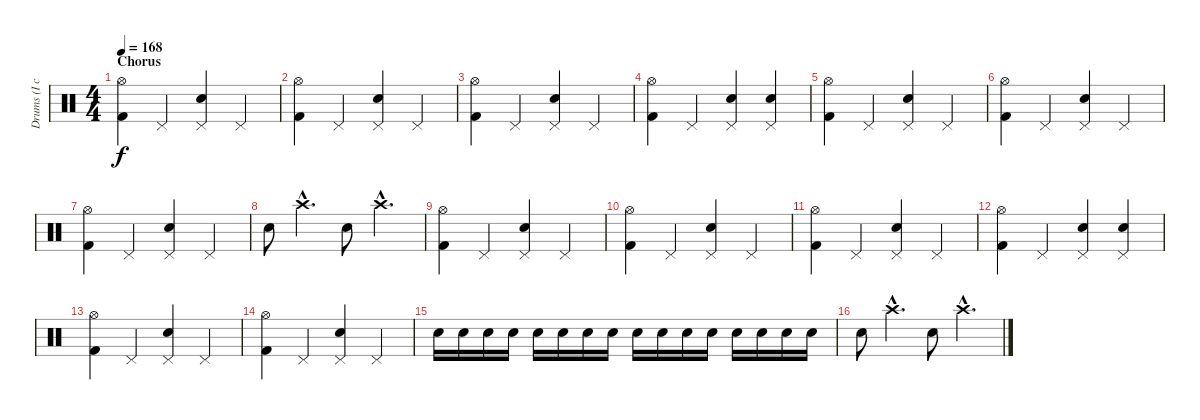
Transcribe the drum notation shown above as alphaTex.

\track ("Drums (I can't tab drums too well...)" "Drums (I c") {instrument percussion}
\staff {score}
\articulation defaults
\ts (4 4)
\section ("" "Chorus")
\tempo 168
\clef neutral
\ks c
("Hi-Hat (open)" "Kick (hit) 2").4{dy f} "Pedal Hi-Hat (hit)".4 ("Pedal Hi-Hat (hit)" "Snare (hit) 2").4 "Pedal Hi-Hat (hit)".4 |
("Hi-Hat (open)" "Kick (hit) 2").4 "Pedal Hi-Hat (hit)".4 ("Pedal Hi-Hat (hit)" "Snare (hit) 2").4 "Pedal Hi-Hat (hit)".4 |
("Hi-Hat (open)" "Kick (hit) 2").4 "Pedal Hi-Hat (hit)".4 ("Pedal Hi-Hat (hit)" "Snare (hit) 2").4 "Pedal Hi-Hat (hit)".4 |
("Hi-Hat (open)" "Kick (hit) 2").4 "Pedal Hi-Hat (hit)".4 ("Pedal Hi-Hat (hit)" "Snare (hit) 2").4 ("Pedal Hi-Hat (hit)" "Snare (hit) 2").4 |
("Hi-Hat (open)" "Kick (hit) 2").4 "Pedal Hi-Hat (hit)".4 ("Pedal Hi-Hat (hit)" "Snare (hit) 2").4 "Pedal Hi-Hat (hit)".4 |
("Hi-Hat (open)" "Kick (hit) 2").4 "Pedal Hi-Hat (hit)".4 ("Pedal Hi-Hat (hit)" "Snare (hit) 2").4 "Pedal Hi-Hat (hit)".4 |
("Hi-Hat (open)" "Kick (hit) 2").4 "Pedal Hi-Hat (hit)".4 ("Pedal Hi-Hat (hit)" "Snare (hit) 2").4 "Pedal Hi-Hat (hit)".4 |
"Snare (hit) 2".8 "Crash high (hit)"{hac}.4{d} "Snare (hit) 2".8 "Crash high (hit)"{hac}.4{d} |
("Hi-Hat (open)" "Kick (hit) 2").4 "Pedal Hi-Hat (hit)".4 ("Pedal Hi-Hat (hit)" "Snare (hit) 2").4 "Pedal Hi-Hat (hit)".4 |
("Hi-Hat (open)" "Kick (hit) 2").4 "Pedal Hi-Hat (hit)".4 ("Pedal Hi-Hat (hit)" "Snare (hit) 2").4 "Pedal Hi-Hat (hit)".4 |
("Hi-Hat (open)" "Kick (hit) 2").4 "Pedal Hi-Hat (hit)".4 ("Pedal Hi-Hat (hit)" "Snare (hit) 2").4 "Pedal Hi-Hat (hit)".4 |
("Hi-Hat (open)" "Kick (hit) 2").4 "Pedal Hi-Hat (hit)".4 ("Pedal Hi-Hat (hit)" "Snare (hit) 2").4 ("Pedal Hi-Hat (hit)" "Snare (hit) 2").4 |
("Hi-Hat (open)" "Kick (hit) 2").4 "Pedal Hi-Hat (hit)".4 ("Pedal Hi-Hat (hit)" "Snare (hit) 2").4 "Pedal Hi-Hat (hit)".4 |
("Hi-Hat (open)" "Kick (hit) 2").4 "Pedal Hi-Hat (hit)".4 ("Pedal Hi-Hat (hit)" "Snare (hit) 2").4 "Pedal Hi-Hat (hit)".4 |
"Snare (hit) 2".16 "Snare (hit) 2".16 "Snare (hit) 2".16 "Snare (hit) 2".16 "Snare (hit) 2".16 "Snare (hit) 2".16 "Snare (hit) 2".16 "Snare (hit) 2".16 "Snare (hit) 2".16 "Snare (hit) 2".16 "Snare (hit) 2".16 "Snare (hit) 2".16 "Snare (hit) 2".16 "Snare (hit) 2".16 "Snare (hit) 2".16 "Snare (hit) 2".16 |
"Snare (hit) 2".8 "Crash high (hit)"{hac}.4{d} "Snare (hit) 2".8 "Crash high (hit)"{hac}.4{d}
